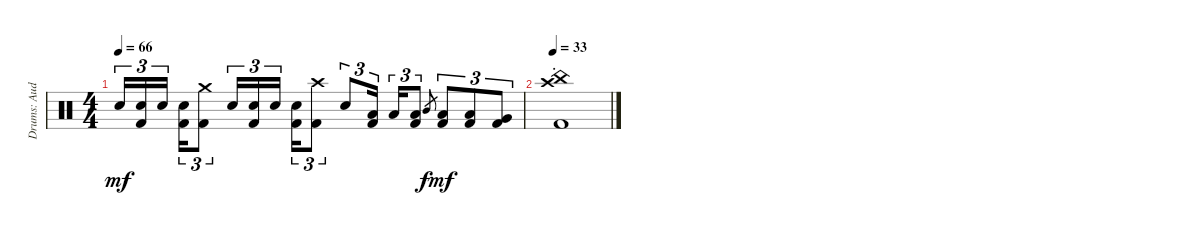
\track ("Drums: Audie" "Drums: Aud") {instrument percussion}
\staff {score}
\articulation defaults
\ts (4 4)
\tempo 66
\clef neutral
\ks c "Snare (hit) 2".16{tu (3 2) dy mf}
("Snare (hit) 2" "Kick (hit) 2").16{tu (3 2)} "Snare (hit) 2".16{tu (3 2) beam splitsecondary} ("Snare (hit) 2" "Kick (hit) 2").16{tu (3 2)} ("Crash medium (hit)" "Kick (hit) 2").8{tu (3 2)} "Snare (hit) 2".16{tu (3 2)} ("Snare (hit) 2" "Kick (hit) 2").16{tu (3 2)} "Snare (hit) 2".16{tu (3 2) beam splitsecondary} ("Snare (hit) 2" "Kick (hit) 2").16{tu (3 2)} ("Crash high (hit)" "Kick (hit) 2").8{tu (3 2)} "Snare (hit) 2".8{tu (3 2)} ("Low Tom (hit)" "Kick (hit) 2").16{tu (3 2) beam splitsecondary} "Low Tom (hit)".16{tu (3 2)} ("Low Tom (hit)" "Kick (hit) 2").8{tu (3 2)} "Mid Tom (hit)".8{gr dy f} ("Low Tom (hit)" "Kick (hit) 2").8{tu (3 2) dy mf} ("Low Tom (hit)" "Kick (hit) 2").8{tu (3 2)} ("Very Low Tom (hit)" "Kick (hit) 2").8{tu (3 2)} |
\tempo 33
("Crash high (hit)"{st} "China (hit)"{st} "Kick (hit) 2"{st}).1
